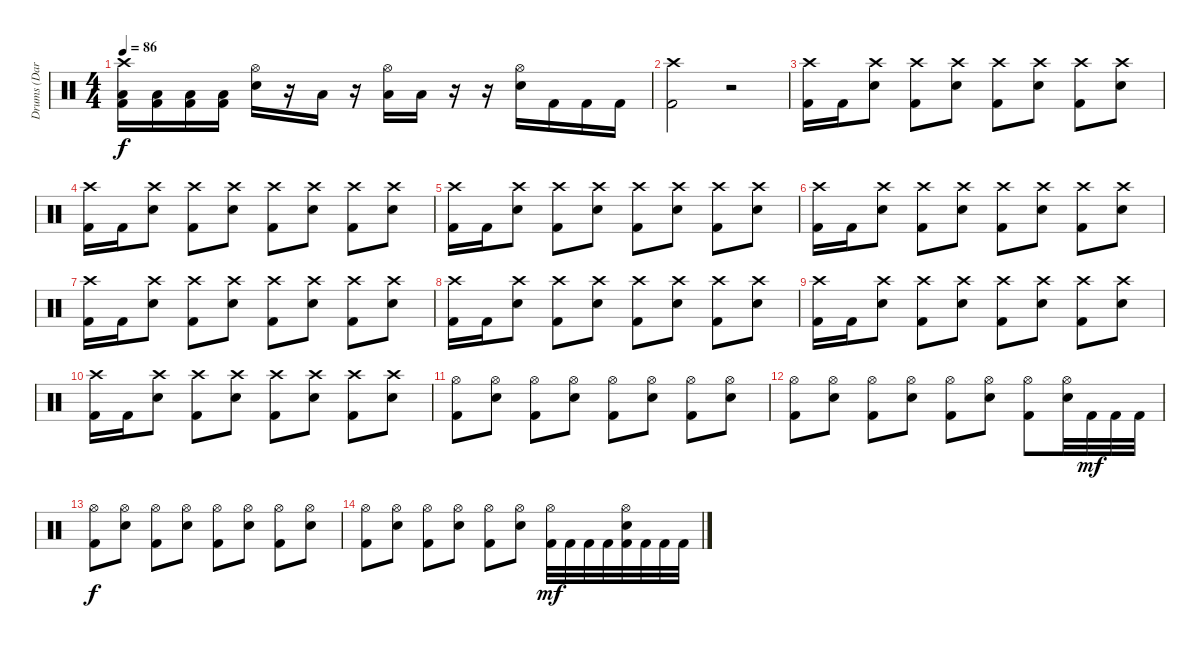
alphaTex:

\track ("Drums (Daray) " "Drums (Dar") {instrument percussion}
\staff {score}
\articulation defaults
\ts (4 4)
\tempo 86
\clef neutral
\ks c
("Crash high (hit)" "Low Tom (hit)" "Kick (hit) 2").16{dy f} ("Low Tom (hit)" "Kick (hit) 2").16 ("Low Tom (hit)" "Kick (hit) 2").16 ("Low Tom (hit)" "Kick (hit) 2").16 ("Hi-Hat (open)" "Electric Snare (hit)").16 r.16 "Low Tom (hit)".16 r.16 ("Hi-Hat (open)" "Low Tom (hit)").16 "Low Tom (hit)".16 r.16 r.16 ("Hi-Hat (open)" "Electric Snare (hit)").16 "Kick (hit) 2".16 "Kick (hit) 2".16 "Kick (hit) 2".16 |
("Crash high (hit)" "Kick (hit) 2").2 r.2 |
("Crash high (hit)" "Kick (hit) 2").16 "Kick (hit) 2".16 ("Crash high (hit)" "Electric Snare (hit)").8 ("Crash high (hit)" "Kick (hit) 2").8 ("Crash high (hit)" "Electric Snare (hit)").8 ("Crash high (hit)" "Kick (hit) 2").8 ("Crash high (hit)" "Electric Snare (hit)").8 ("Crash high (hit)" "Kick (hit) 2").8 ("Crash high (hit)" "Electric Snare (hit)").8 |
("Crash high (hit)" "Kick (hit) 2").16 "Kick (hit) 2".16 ("Crash high (hit)" "Electric Snare (hit)").8 ("Crash high (hit)" "Kick (hit) 2").8 ("Crash high (hit)" "Electric Snare (hit)").8 ("Crash high (hit)" "Kick (hit) 2").8 ("Crash high (hit)" "Electric Snare (hit)").8 ("Crash high (hit)" "Kick (hit) 2").8 ("Crash high (hit)" "Electric Snare (hit)").8 |
("Crash high (hit)" "Kick (hit) 2").16 "Kick (hit) 2".16 ("Crash high (hit)" "Electric Snare (hit)").8 ("Crash high (hit)" "Kick (hit) 2").8 ("Crash high (hit)" "Electric Snare (hit)").8 ("Crash high (hit)" "Kick (hit) 2").8 ("Crash high (hit)" "Electric Snare (hit)").8 ("Crash high (hit)" "Kick (hit) 2").8 ("Crash high (hit)" "Electric Snare (hit)").8 |
("Crash high (hit)" "Kick (hit) 2").16 "Kick (hit) 2".16 ("Crash high (hit)" "Electric Snare (hit)").8 ("Crash high (hit)" "Kick (hit) 2").8 ("Crash high (hit)" "Electric Snare (hit)").8 ("Crash high (hit)" "Kick (hit) 2").8 ("Crash high (hit)" "Electric Snare (hit)").8 ("Crash high (hit)" "Kick (hit) 2").8 ("Crash high (hit)" "Electric Snare (hit)").8 |
("Crash high (hit)" "Kick (hit) 2").16 "Kick (hit) 2".16 ("Crash high (hit)" "Electric Snare (hit)").8 ("Crash high (hit)" "Kick (hit) 2").8 ("Crash high (hit)" "Electric Snare (hit)").8 ("Crash high (hit)" "Kick (hit) 2").8 ("Crash high (hit)" "Electric Snare (hit)").8 ("Crash high (hit)" "Kick (hit) 2").8 ("Crash high (hit)" "Electric Snare (hit)").8 |
("Crash high (hit)" "Kick (hit) 2").16 "Kick (hit) 2".16 ("Crash high (hit)" "Electric Snare (hit)").8 ("Crash high (hit)" "Kick (hit) 2").8 ("Crash high (hit)" "Electric Snare (hit)").8 ("Crash high (hit)" "Kick (hit) 2").8 ("Crash high (hit)" "Electric Snare (hit)").8 ("Crash high (hit)" "Kick (hit) 2").8 ("Crash high (hit)" "Electric Snare (hit)").8 |
("Crash high (hit)" "Kick (hit) 2").16 "Kick (hit) 2".16 ("Crash high (hit)" "Electric Snare (hit)").8 ("Crash high (hit)" "Kick (hit) 2").8 ("Crash high (hit)" "Electric Snare (hit)").8 ("Crash high (hit)" "Kick (hit) 2").8 ("Crash high (hit)" "Electric Snare (hit)").8 ("Crash high (hit)" "Kick (hit) 2").8 ("Crash high (hit)" "Electric Snare (hit)").8 |
("Crash high (hit)" "Kick (hit) 2").16 "Kick (hit) 2".16 ("Crash high (hit)" "Electric Snare (hit)").8 ("Crash high (hit)" "Kick (hit) 2").8 ("Crash high (hit)" "Electric Snare (hit)").8 ("Crash high (hit)" "Kick (hit) 2").8 ("Crash high (hit)" "Electric Snare (hit)").8 ("Crash high (hit)" "Kick (hit) 2").8 ("Crash high (hit)" "Electric Snare (hit)").8 |
("Hi-Hat (open)" "Kick (hit) 2").8 ("Hi-Hat (open)" "Electric Snare (hit)").8 ("Hi-Hat (open)" "Kick (hit) 2").8 ("Hi-Hat (open)" "Electric Snare (hit)").8 ("Hi-Hat (open)" "Kick (hit) 2").8 ("Hi-Hat (open)" "Electric Snare (hit)").8 ("Hi-Hat (open)" "Kick (hit) 2").8 ("Hi-Hat (open)" "Electric Snare (hit)").8 |
("Hi-Hat (open)" "Kick (hit) 2").8 ("Hi-Hat (open)" "Electric Snare (hit)").8 ("Hi-Hat (open)" "Kick (hit) 2").8 ("Hi-Hat (open)" "Electric Snare (hit)").8 ("Hi-Hat (open)" "Kick (hit) 2").8 ("Hi-Hat (open)" "Electric Snare (hit)").8 ("Hi-Hat (open)" "Kick (hit) 2").8 ("Hi-Hat (open)" "Electric Snare (hit)").32 "Kick (hit) 2".32{dy mf} "Kick (hit) 2".32 "Kick (hit) 2".32 |
("Hi-Hat (open)" "Kick (hit) 2").8{dy f} ("Hi-Hat (open)" "Electric Snare (hit)").8 ("Hi-Hat (open)" "Kick (hit) 2").8 ("Hi-Hat (open)" "Electric Snare (hit)").8 ("Hi-Hat (open)" "Kick (hit) 2").8 ("Hi-Hat (open)" "Electric Snare (hit)").8 ("Hi-Hat (open)" "Kick (hit) 2").8 ("Hi-Hat (open)" "Electric Snare (hit)").8 |
("Hi-Hat (open)" "Kick (hit) 2").8 ("Hi-Hat (open)" "Electric Snare (hit)").8 ("Hi-Hat (open)" "Kick (hit) 2").8 ("Hi-Hat (open)" "Electric Snare (hit)").8 ("Hi-Hat (open)" "Kick (hit) 2").8 ("Hi-Hat (open)" "Electric Snare (hit)").8 ("Hi-Hat (open)" "Kick (hit) 2").32{dy mf} "Kick (hit) 2".32 "Kick (hit) 2".32 "Kick (hit) 2".32 ("Hi-Hat (open)" "Electric Snare (hit)" "Kick (hit) 2").32 "Kick (hit) 2".32 "Kick (hit) 2".32 "Kick (hit) 2".32
